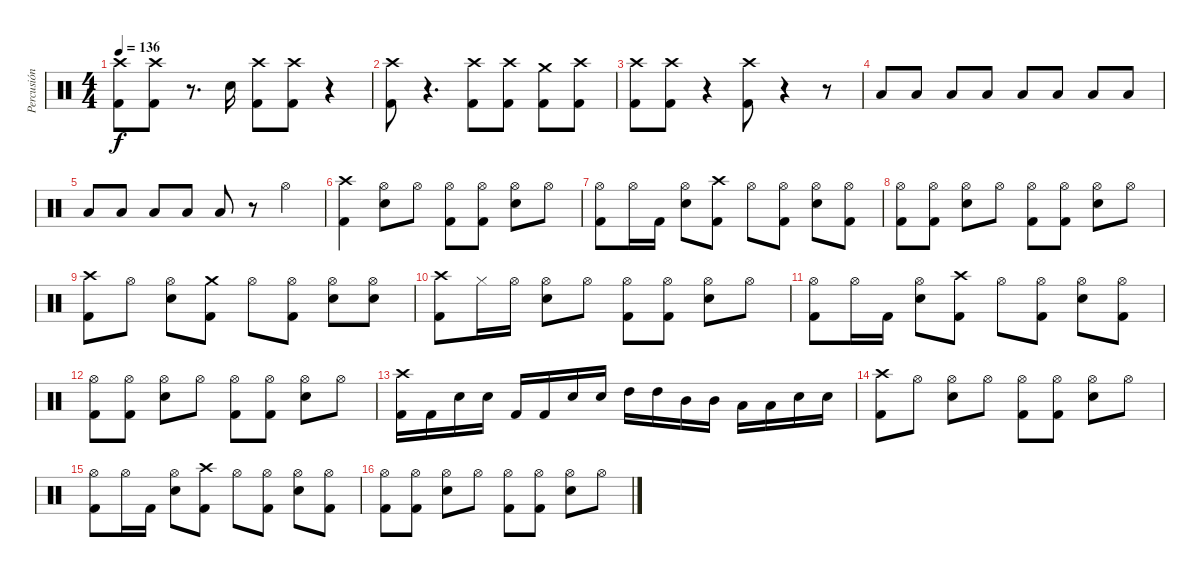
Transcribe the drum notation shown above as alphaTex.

\track ("Percusión" "Percusión") {instrument percussion}
\staff {score}
\articulation defaults
\ts (4 4)
\tempo 136
\clef neutral
\ks c
("Crash high (hit)" "Kick (hit) 2").8{dy f volume 15} ("Crash high (hit)" "Kick (hit) 2").8 r.8{d volume 0} "Snare (hit) 2".16{volume 15} ("Crash high (hit)" "Kick (hit) 2").8 ("Crash high (hit)" "Kick (hit) 2").8 r.4{volume 0} |
("Crash high (hit)" "Kick (hit) 2").8{volume 15} r.4{d volume 0} ("Crash high (hit)" "Kick (hit) 2").8{volume 15} ("Crash high (hit)" "Kick (hit) 2").8 ("Crash medium (hit)" "Kick (hit) 2").8{volume 15} ("Crash high (hit)" "Kick (hit) 2").8 |
("Crash high (hit)" "Kick (hit) 2").8{volume 15} ("Crash high (hit)" "Kick (hit) 2").8 r.4{volume 0} ("Crash high (hit)" "Kick (hit) 2").8{volume 15} r.4{volume 0} r.8{volume 15} |
"Low Floor Tom (hit)".8 "Low Floor Tom (hit)".8 "Low Floor Tom (hit)".8 "Low Floor Tom (hit)".8 "Low Floor Tom (hit)".8 "Low Floor Tom (hit)".8 "Low Floor Tom (hit)".8 "Low Floor Tom (hit)".8 |
"Low Floor Tom (hit)".8 "Low Floor Tom (hit)".8 "Low Floor Tom (hit)".8 "Low Floor Tom (hit)".8 "Low Floor Tom (hit)".8 r.8 "Hi-Hat (open)".4 |
("Crash high (hit)" "Kick (hit) 2").4 ("Hi-Hat (open)" "Snare (hit) 2").8 "Hi-Hat (open)".8 ("Hi-Hat (open)" "Kick (hit) 2").8 ("Hi-Hat (open)" "Kick (hit) 2").8 ("Hi-Hat (open)" "Snare (hit) 2").8 "Hi-Hat (open)".8 |
("Hi-Hat (open)" "Kick (hit) 2").8 "Hi-Hat (open)".16 "Kick (hit) 2".16 ("Hi-Hat (open)" "Snare (hit) 2").8 ("Crash high (hit)" "Kick (hit) 2").8 "Hi-Hat (open)".8 ("Hi-Hat (open)" "Kick (hit) 2").8 ("Hi-Hat (open)" "Snare (hit) 2").8 ("Hi-Hat (open)" "Kick (hit) 2").8 |
("Hi-Hat (open)" "Kick (hit) 2").8 ("Hi-Hat (open)" "Kick (hit) 2").8 ("Hi-Hat (open)" "Snare (hit) 2").8 "Hi-Hat (open)".8 ("Hi-Hat (open)" "Kick (hit) 2").8 ("Hi-Hat (open)" "Kick (hit) 2").8 ("Hi-Hat (open)" "Snare (hit) 2").8 "Hi-Hat (open)".8 |
("Crash high (hit)" "Kick (hit) 2").8 "Hi-Hat (open)".8 ("Hi-Hat (open)" "Snare (hit) 2").8 ("Crash medium (hit)" "Kick (hit) 2").8 "Hi-Hat (open)".8 ("Hi-Hat (open)" "Kick (hit) 2").8 ("Hi-Hat (open)" "Snare (hit) 2").8 ("Hi-Hat (open)" "Snare (hit) 2").8 |
("Crash high (hit)" "Kick (hit) 2").8 "Hi-Hat (closed)".16 "Hi-Hat (open)".16 ("Hi-Hat (open)" "Snare (hit) 2").8 "Hi-Hat (open)".8 ("Hi-Hat (open)" "Kick (hit) 2").8 ("Hi-Hat (open)" "Kick (hit) 2").8 ("Hi-Hat (open)" "Snare (hit) 2").8 "Hi-Hat (open)".8 |
("Hi-Hat (open)" "Kick (hit) 2").8 "Hi-Hat (open)".16 "Kick (hit) 2".16 ("Hi-Hat (open)" "Snare (hit) 2").8 ("Crash high (hit)" "Kick (hit) 2").8 "Hi-Hat (open)".8 ("Hi-Hat (open)" "Kick (hit) 2").8 ("Hi-Hat (open)" "Snare (hit) 2").8 ("Hi-Hat (open)" "Kick (hit) 2").8 |
("Hi-Hat (open)" "Kick (hit) 2").8 ("Hi-Hat (open)" "Kick (hit) 2").8 ("Hi-Hat (open)" "Snare (hit) 2").8 "Hi-Hat (open)".8 ("Hi-Hat (open)" "Kick (hit) 2").8 ("Hi-Hat (open)" "Kick (hit) 2").8 ("Hi-Hat (open)" "Snare (hit) 2").8 "Hi-Hat (open)".8 |
("Crash high (hit)" "Kick (hit) 2").16 "Kick (hit) 2".16 "Snare (hit) 2".16 "Snare (hit) 2".16 "Kick (hit) 2".16 "Kick (hit) 2".16 "Snare (hit) 2".16 "Snare (hit) 2".16 "High Tom (hit)".16 "High Tom (hit)".16 "Mid Tom (hit)".16 "Mid Tom (hit)".16 "Low Tom (hit)".16 "Low Tom (hit)".16 "Snare (hit) 2".16 "Snare (hit) 2".16 |
("Crash high (hit)" "Kick (hit) 2").8 "Hi-Hat (open)".8 ("Hi-Hat (open)" "Snare (hit) 2").8 "Hi-Hat (open)".8 ("Hi-Hat (open)" "Kick (hit) 2").8 ("Hi-Hat (open)" "Kick (hit) 2").8 ("Hi-Hat (open)" "Snare (hit) 2").8 "Hi-Hat (open)".8 |
("Hi-Hat (open)" "Kick (hit) 2").8 "Hi-Hat (open)".16 "Kick (hit) 2".16 ("Hi-Hat (open)" "Snare (hit) 2").8 ("Crash high (hit)" "Kick (hit) 2").8 "Hi-Hat (open)".8 ("Hi-Hat (open)" "Kick (hit) 2").8 ("Hi-Hat (open)" "Snare (hit) 2").8 ("Hi-Hat (open)" "Kick (hit) 2").8 |
("Hi-Hat (open)" "Kick (hit) 2").8 ("Hi-Hat (open)" "Kick (hit) 2").8 ("Hi-Hat (open)" "Snare (hit) 2").8 "Hi-Hat (open)".8 ("Hi-Hat (open)" "Kick (hit) 2").8 ("Hi-Hat (open)" "Kick (hit) 2").8 ("Hi-Hat (open)" "Snare (hit) 2").8 "Hi-Hat (open)".8
